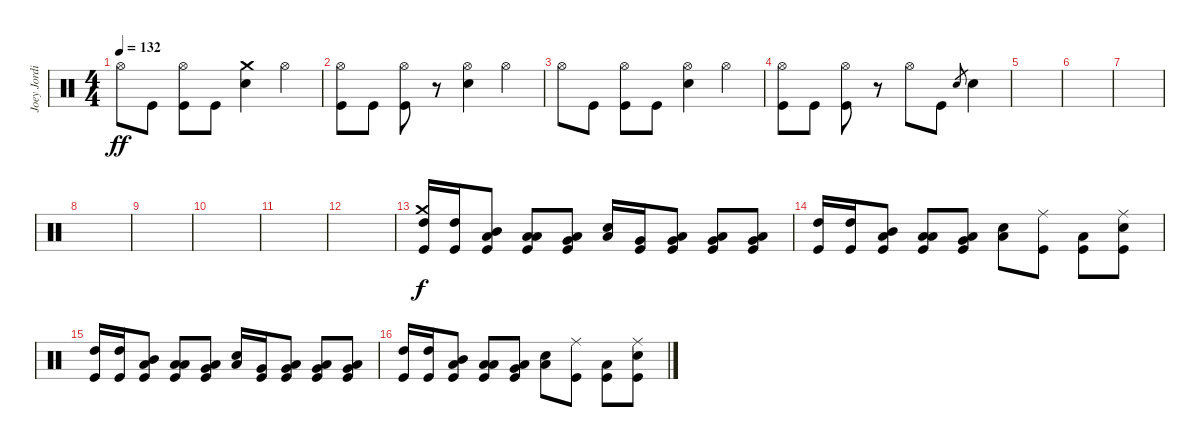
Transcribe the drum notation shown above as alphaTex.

\track ("Joey Jordison" "Joey Jordi") {instrument percussion}
\staff {score}
\articulation defaults
\ts (4 4)
\tempo 132
\clef neutral
\ks c "Hi-Hat (open)".8{dy ff} "Kick (hit)".8
("Kick (hit)" "Hi-Hat (open)").8 "Kick (hit)".8 ("Snare (hit) 2" "Crash medium (hit)").4 "Hi-Hat (open)".4 |
("Kick (hit)" "Hi-Hat (open)").8 "Kick (hit)".8 ("Hi-Hat (open)" "Kick (hit)").8 r.8 ("Hi-Hat (open)" "Snare (hit) 2").4 "Hi-Hat (open)".4 |
"Hi-Hat (open)".8 "Kick (hit)".8 ("Kick (hit)" "Hi-Hat (open)").8 "Kick (hit)".8 ("Snare (hit) 2" "Hi-Hat (open)").4 "Hi-Hat (open)".4 |
("Kick (hit)" "Hi-Hat (open)").8 "Kick (hit)".8 ("Hi-Hat (open)" "Kick (hit)").8 r.8 "Hi-Hat (open)".8 "Kick (hit)".8 "Snare (hit)".8{gr} "Snare (hit) 2".4 |
|
|
|
|
|
|
|
|
("Kick (hit)" "High Tom (hit)" "Crash medium (hit)").16{dy f} ("Kick (hit)" "High Tom (hit)").16 ("Kick (hit)" "Low Floor Tom (hit)" "Mid Tom (hit)").8 ("Kick (hit)" "Low Floor Tom (hit)" "Low Tom (hit)").8 ("Kick (hit)" "Low Floor Tom (hit)" "Very Low Tom (hit)").8 ("Snare (hit) 2" "Low Floor Tom (hit)").16 ("Kick (hit)" "Very Low Tom (hit)").16 ("Kick (hit)" "Low Floor Tom (hit)" "Very Low Tom (hit)").8 ("Kick (hit)" "Low Floor Tom (hit)" "Very Low Tom (hit)").8 ("Kick (hit)" "Low Floor Tom (hit)" "Very Low Tom (hit)").8 |
("Kick (hit)" "High Tom (hit)").16 ("Kick (hit)" "High Tom (hit)").16 ("Kick (hit)" "Low Floor Tom (hit)" "Mid Tom (hit)").8 ("Kick (hit)" "Low Floor Tom (hit)" "Low Tom (hit)").8 ("Kick (hit)" "Low Floor Tom (hit)" "Very Low Tom (hit)").8 ("Snare (hit) 2" "Low Floor Tom (hit)").8 ("Kick (hit)" "Ride (middle)").8 ("Kick (hit)" "Low Floor Tom (hit)").8 ("Kick (hit)" "Snare (hit) 2" "Ride (middle)").8 |
("Kick (hit)" "High Tom (hit)").16 ("Kick (hit)" "High Tom (hit)").16 ("Kick (hit)" "Low Floor Tom (hit)" "Mid Tom (hit)").8 ("Kick (hit)" "Low Floor Tom (hit)" "Low Tom (hit)").8 ("Kick (hit)" "Low Floor Tom (hit)" "Very Low Tom (hit)").8 ("Snare (hit) 2" "Low Floor Tom (hit)").16 ("Kick (hit)" "Very Low Tom (hit)").16 ("Kick (hit)" "Low Floor Tom (hit)" "Very Low Tom (hit)").8 ("Kick (hit)" "Low Floor Tom (hit)" "Very Low Tom (hit)").8 ("Kick (hit)" "Low Floor Tom (hit)" "Very Low Tom (hit)").8 |
("Kick (hit)" "High Tom (hit)").16 ("Kick (hit)" "High Tom (hit)").16 ("Kick (hit)" "Low Floor Tom (hit)" "Mid Tom (hit)").8 ("Kick (hit)" "Low Floor Tom (hit)" "Low Tom (hit)").8 ("Kick (hit)" "Low Floor Tom (hit)" "Very Low Tom (hit)").8 ("Snare (hit) 2" "Low Floor Tom (hit)").8 ("Kick (hit)" "Ride (middle)").8 ("Kick (hit)" "Low Floor Tom (hit)").8 ("Kick (hit)" "Snare (hit) 2" "Ride (middle)").8
